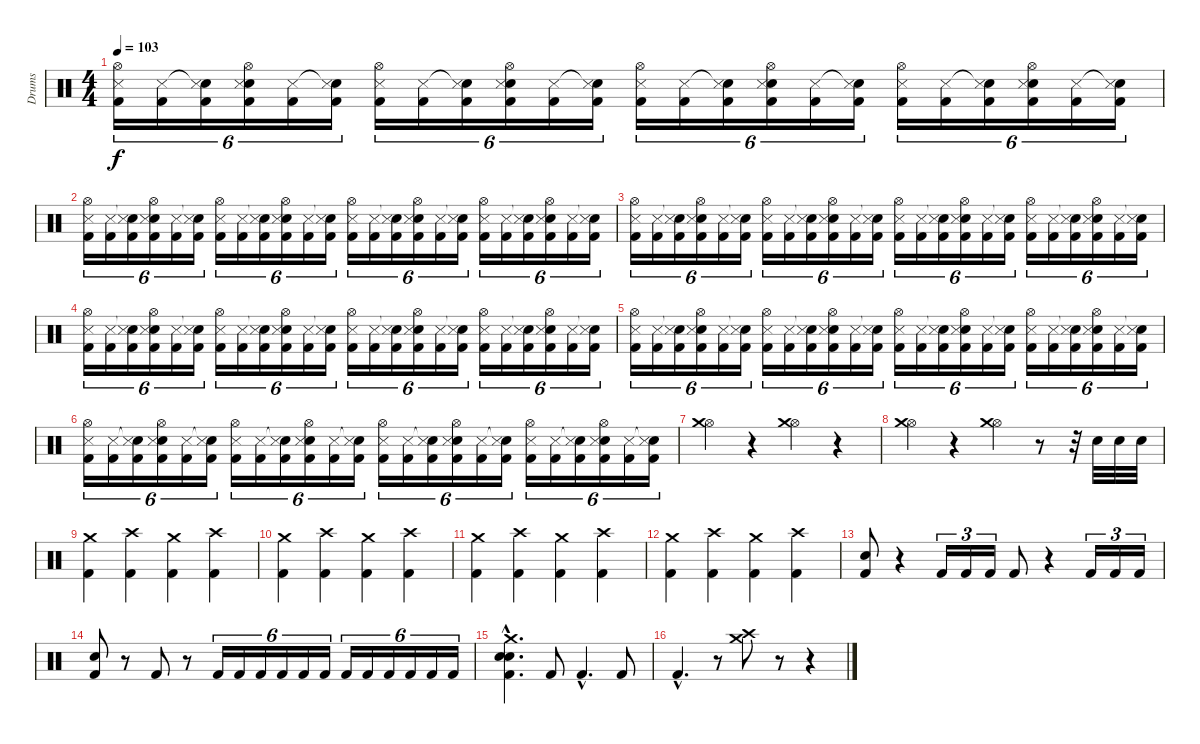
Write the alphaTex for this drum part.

\track ("Drums" "Drums") {instrument percussion}
\staff {score}
\articulation defaults
\ts (4 4)
\tempo 103
\clef neutral
\ks c
("Hi-Hat (open)" "Snare (side stick) 3" "Kick (hit) 2").16{tu (6 4) dy f} ("Snare (side stick) 3" "Kick (hit) 2").16{tu (6 4)} ("Snare (hit)"{t} "Snare (side stick) 3" "Kick (hit) 2").16{tu (6 4)} ("Hi-Hat (open)" "Electric Snare (hit)" "Snare (side stick) 3" "Kick (hit) 2").16{tu (6 4)} ("Snare (side stick) 3" "Kick (hit) 2").16{tu (6 4)} ("Snare (hit)"{t} "Snare (side stick) 3" "Kick (hit) 2").16{tu (6 4)} ("Hi-Hat (open)" "Snare (side stick) 3" "Kick (hit) 2").16{tu (6 4)} ("Snare (side stick) 3" "Kick (hit) 2").16{tu (6 4)} ("Snare (hit)"{t} "Snare (side stick) 3" "Kick (hit) 2").16{tu (6 4)} ("Hi-Hat (open)" "Electric Snare (hit)" "Snare (side stick) 3" "Kick (hit) 2").16{tu (6 4)} ("Snare (side stick) 3" "Kick (hit) 2").16{tu (6 4)} ("Snare (hit)"{t} "Snare (side stick) 3" "Kick (hit) 2").16{tu (6 4)} ("Hi-Hat (open)" "Snare (side stick) 3" "Kick (hit) 2").16{tu (6 4)} ("Snare (side stick) 3" "Kick (hit) 2").16{tu (6 4)} ("Snare (hit)"{t} "Snare (side stick) 3" "Kick (hit) 2").16{tu (6 4)} ("Hi-Hat (open)" "Electric Snare (hit)" "Snare (side stick) 3" "Kick (hit) 2").16{tu (6 4)} ("Snare (side stick) 3" "Kick (hit) 2").16{tu (6 4)} ("Snare (hit)"{t} "Snare (side stick) 3" "Kick (hit) 2").16{tu (6 4)} ("Hi-Hat (open)" "Snare (side stick) 3" "Kick (hit) 2").16{tu (6 4)} ("Snare (side stick) 3" "Kick (hit) 2").16{tu (6 4)} ("Snare (hit)"{t} "Snare (side stick) 3" "Kick (hit) 2").16{tu (6 4)} ("Hi-Hat (open)" "Electric Snare (hit)" "Snare (side stick) 3" "Kick (hit) 2").16{tu (6 4)} ("Snare (side stick) 3" "Kick (hit) 2").16{tu (6 4)} ("Snare (hit)"{t} "Snare (side stick) 3" "Kick (hit) 2").16{tu (6 4)} |
("Hi-Hat (open)" "Snare (side stick) 3" "Kick (hit) 2").16{tu (6 4)} ("Snare (side stick) 3" "Kick (hit) 2").16{tu (6 4)} ("Snare (hit)"{t} "Snare (side stick) 3" "Kick (hit) 2").16{tu (6 4)} ("Hi-Hat (open)" "Electric Snare (hit)" "Snare (side stick) 3" "Kick (hit) 2").16{tu (6 4)} ("Snare (side stick) 3" "Kick (hit) 2").16{tu (6 4)} ("Snare (hit)"{t} "Snare (side stick) 3" "Kick (hit) 2").16{tu (6 4)} ("Hi-Hat (open)" "Snare (side stick) 3" "Kick (hit) 2").16{tu (6 4)} ("Snare (side stick) 3" "Kick (hit) 2").16{tu (6 4)} ("Snare (hit)"{t} "Snare (side stick) 3" "Kick (hit) 2").16{tu (6 4)} ("Hi-Hat (open)" "Electric Snare (hit)" "Snare (side stick) 3" "Kick (hit) 2").16{tu (6 4)} ("Snare (side stick) 3" "Kick (hit) 2").16{tu (6 4)} ("Snare (hit)"{t} "Snare (side stick) 3" "Kick (hit) 2").16{tu (6 4)} ("Hi-Hat (open)" "Snare (side stick) 3" "Kick (hit) 2").16{tu (6 4)} ("Snare (side stick) 3" "Kick (hit) 2").16{tu (6 4)} ("Snare (hit)"{t} "Snare (side stick) 3" "Kick (hit) 2").16{tu (6 4)} ("Hi-Hat (open)" "Electric Snare (hit)" "Snare (side stick) 3" "Kick (hit) 2").16{tu (6 4)} ("Snare (side stick) 3" "Kick (hit) 2").16{tu (6 4)} ("Snare (hit)"{t} "Snare (side stick) 3" "Kick (hit) 2").16{tu (6 4)} ("Hi-Hat (open)" "Snare (side stick) 3" "Kick (hit) 2").16{tu (6 4)} ("Snare (side stick) 3" "Kick (hit) 2").16{tu (6 4)} ("Snare (hit)"{t} "Snare (side stick) 3" "Kick (hit) 2").16{tu (6 4)} ("Hi-Hat (open)" "Electric Snare (hit)" "Snare (side stick) 3" "Kick (hit) 2").16{tu (6 4)} ("Snare (side stick) 3" "Kick (hit) 2").16{tu (6 4)} ("Snare (hit)"{t} "Snare (side stick) 3" "Kick (hit) 2").16{tu (6 4)} |
("Hi-Hat (open)" "Snare (side stick) 3" "Kick (hit) 2").16{tu (6 4)} ("Snare (side stick) 3" "Kick (hit) 2").16{tu (6 4)} ("Snare (hit)"{t} "Snare (side stick) 3" "Kick (hit) 2").16{tu (6 4)} ("Hi-Hat (open)" "Electric Snare (hit)" "Snare (side stick) 3" "Kick (hit) 2").16{tu (6 4)} ("Snare (side stick) 3" "Kick (hit) 2").16{tu (6 4)} ("Snare (hit)"{t} "Snare (side stick) 3" "Kick (hit) 2").16{tu (6 4)} ("Hi-Hat (open)" "Snare (side stick) 3" "Kick (hit) 2").16{tu (6 4)} ("Snare (side stick) 3" "Kick (hit) 2").16{tu (6 4)} ("Snare (hit)"{t} "Snare (side stick) 3" "Kick (hit) 2").16{tu (6 4)} ("Hi-Hat (open)" "Electric Snare (hit)" "Snare (side stick) 3" "Kick (hit) 2").16{tu (6 4)} ("Snare (side stick) 3" "Kick (hit) 2").16{tu (6 4)} ("Snare (hit)"{t} "Snare (side stick) 3" "Kick (hit) 2").16{tu (6 4)} ("Hi-Hat (open)" "Snare (side stick) 3" "Kick (hit) 2").16{tu (6 4)} ("Snare (side stick) 3" "Kick (hit) 2").16{tu (6 4)} ("Snare (hit)"{t} "Snare (side stick) 3" "Kick (hit) 2").16{tu (6 4)} ("Hi-Hat (open)" "Electric Snare (hit)" "Snare (side stick) 3" "Kick (hit) 2").16{tu (6 4)} ("Snare (side stick) 3" "Kick (hit) 2").16{tu (6 4)} ("Snare (hit)"{t} "Snare (side stick) 3" "Kick (hit) 2").16{tu (6 4)} ("Hi-Hat (open)" "Snare (side stick) 3" "Kick (hit) 2").16{tu (6 4)} ("Snare (side stick) 3" "Kick (hit) 2").16{tu (6 4)} ("Snare (hit)"{t} "Snare (side stick) 3" "Kick (hit) 2").16{tu (6 4)} ("Hi-Hat (open)" "Electric Snare (hit)" "Snare (side stick) 3" "Kick (hit) 2").16{tu (6 4)} ("Snare (side stick) 3" "Kick (hit) 2").16{tu (6 4)} ("Snare (hit)"{t} "Snare (side stick) 3" "Kick (hit) 2").16{tu (6 4)} |
("Hi-Hat (open)" "Snare (side stick) 3" "Kick (hit) 2").16{tu (6 4)} ("Snare (side stick) 3" "Kick (hit) 2").16{tu (6 4)} ("Snare (hit)"{t} "Snare (side stick) 3" "Kick (hit) 2").16{tu (6 4)} ("Hi-Hat (open)" "Electric Snare (hit)" "Snare (side stick) 3" "Kick (hit) 2").16{tu (6 4)} ("Snare (side stick) 3" "Kick (hit) 2").16{tu (6 4)} ("Snare (hit)"{t} "Snare (side stick) 3" "Kick (hit) 2").16{tu (6 4)} ("Hi-Hat (open)" "Snare (side stick) 3" "Kick (hit) 2").16{tu (6 4)} ("Snare (side stick) 3" "Kick (hit) 2").16{tu (6 4)} ("Snare (hit)"{t} "Snare (side stick) 3" "Kick (hit) 2").16{tu (6 4)} ("Hi-Hat (open)" "Electric Snare (hit)" "Snare (side stick) 3" "Kick (hit) 2").16{tu (6 4)} ("Snare (side stick) 3" "Kick (hit) 2").16{tu (6 4)} ("Snare (hit)"{t} "Snare (side stick) 3" "Kick (hit) 2").16{tu (6 4)} ("Hi-Hat (open)" "Snare (side stick) 3" "Kick (hit) 2").16{tu (6 4)} ("Snare (side stick) 3" "Kick (hit) 2").16{tu (6 4)} ("Snare (hit)"{t} "Snare (side stick) 3" "Kick (hit) 2").16{tu (6 4)} ("Hi-Hat (open)" "Electric Snare (hit)" "Snare (side stick) 3" "Kick (hit) 2").16{tu (6 4)} ("Snare (side stick) 3" "Kick (hit) 2").16{tu (6 4)} ("Snare (hit)"{t} "Snare (side stick) 3" "Kick (hit) 2").16{tu (6 4)} ("Hi-Hat (open)" "Snare (side stick) 3" "Kick (hit) 2").16{tu (6 4)} ("Snare (side stick) 3" "Kick (hit) 2").16{tu (6 4)} ("Snare (hit)"{t} "Snare (side stick) 3" "Kick (hit) 2").16{tu (6 4)} ("Hi-Hat (open)" "Electric Snare (hit)" "Snare (side stick) 3" "Kick (hit) 2").16{tu (6 4)} ("Snare (side stick) 3" "Kick (hit) 2").16{tu (6 4)} ("Snare (hit)"{t} "Snare (side stick) 3" "Kick (hit) 2").16{tu (6 4)} |
("Hi-Hat (open)" "Snare (side stick) 3" "Kick (hit) 2").16{tu (6 4)} ("Snare (side stick) 3" "Kick (hit) 2").16{tu (6 4)} ("Snare (hit)"{t} "Snare (side stick) 3" "Kick (hit) 2").16{tu (6 4)} ("Hi-Hat (open)" "Electric Snare (hit)" "Snare (side stick) 3" "Kick (hit) 2").16{tu (6 4)} ("Snare (side stick) 3" "Kick (hit) 2").16{tu (6 4)} ("Snare (hit)"{t} "Snare (side stick) 3" "Kick (hit) 2").16{tu (6 4)} ("Hi-Hat (open)" "Snare (side stick) 3" "Kick (hit) 2").16{tu (6 4)} ("Snare (side stick) 3" "Kick (hit) 2").16{tu (6 4)} ("Snare (hit)"{t} "Snare (side stick) 3" "Kick (hit) 2").16{tu (6 4)} ("Hi-Hat (open)" "Electric Snare (hit)" "Snare (side stick) 3" "Kick (hit) 2").16{tu (6 4)} ("Snare (side stick) 3" "Kick (hit) 2").16{tu (6 4)} ("Snare (hit)"{t} "Snare (side stick) 3" "Kick (hit) 2").16{tu (6 4)} ("Hi-Hat (open)" "Snare (side stick) 3" "Kick (hit) 2").16{tu (6 4)} ("Snare (side stick) 3" "Kick (hit) 2").16{tu (6 4)} ("Snare (hit)"{t} "Snare (side stick) 3" "Kick (hit) 2").16{tu (6 4)} ("Hi-Hat (open)" "Electric Snare (hit)" "Snare (side stick) 3" "Kick (hit) 2").16{tu (6 4)} ("Snare (side stick) 3" "Kick (hit) 2").16{tu (6 4)} ("Snare (hit)"{t} "Snare (side stick) 3" "Kick (hit) 2").16{tu (6 4)} ("Hi-Hat (open)" "Snare (side stick) 3" "Kick (hit) 2").16{tu (6 4)} ("Snare (side stick) 3" "Kick (hit) 2").16{tu (6 4)} ("Snare (hit)"{t} "Snare (side stick) 3" "Kick (hit) 2").16{tu (6 4)} ("Hi-Hat (open)" "Electric Snare (hit)" "Snare (side stick) 3" "Kick (hit) 2").16{tu (6 4)} ("Snare (side stick) 3" "Kick (hit) 2").16{tu (6 4)} ("Snare (hit)"{t} "Snare (side stick) 3" "Kick (hit) 2").16{tu (6 4)} |
("Hi-Hat (open)" "Snare (side stick) 3" "Kick (hit) 2").16{tu (6 4)} ("Snare (side stick) 3" "Kick (hit) 2").16{tu (6 4)} ("Snare (hit)"{t} "Snare (side stick) 3" "Kick (hit) 2").16{tu (6 4)} ("Hi-Hat (open)" "Electric Snare (hit)" "Snare (side stick) 3" "Kick (hit) 2").16{tu (6 4)} ("Snare (side stick) 3" "Kick (hit) 2").16{tu (6 4)} ("Snare (hit)"{t} "Snare (side stick) 3" "Kick (hit) 2").16{tu (6 4)} ("Hi-Hat (open)" "Snare (side stick) 3" "Kick (hit) 2").16{tu (6 4)} ("Snare (side stick) 3" "Kick (hit) 2").16{tu (6 4)} ("Snare (hit)"{t} "Snare (side stick) 3" "Kick (hit) 2").16{tu (6 4)} ("Hi-Hat (open)" "Electric Snare (hit)" "Snare (side stick) 3" "Kick (hit) 2").16{tu (6 4)} ("Snare (side stick) 3" "Kick (hit) 2").16{tu (6 4)} ("Snare (hit)"{t} "Snare (side stick) 3" "Kick (hit) 2").16{tu (6 4)} ("Hi-Hat (open)" "Snare (side stick) 3" "Kick (hit) 2").16{tu (6 4)} ("Snare (side stick) 3" "Kick (hit) 2").16{tu (6 4)} ("Snare (hit)"{t} "Snare (side stick) 3" "Kick (hit) 2").16{tu (6 4)} ("Hi-Hat (open)" "Electric Snare (hit)" "Snare (side stick) 3" "Kick (hit) 2").16{tu (6 4)} ("Snare (side stick) 3" "Kick (hit) 2").16{tu (6 4)} ("Snare (hit)"{t} "Snare (side stick) 3" "Kick (hit) 2").16{tu (6 4)} ("Hi-Hat (open)" "Snare (side stick) 3" "Kick (hit) 2").16{tu (6 4)} ("Snare (side stick) 3" "Kick (hit) 2").16{tu (6 4)} ("Snare (hit)"{t} "Snare (side stick) 3" "Kick (hit) 2").16{tu (6 4)} ("Hi-Hat (open)" "Electric Snare (hit)" "Snare (side stick) 3" "Kick (hit) 2").16{tu (6 4)} ("Snare (side stick) 3" "Kick (hit) 2").16{tu (6 4)} ("Snare (hit)"{t} "Snare (side stick) 3" "Kick (hit) 2").16{tu (6 4)} |
("Hi-Hat (open)" "Crash medium (hit)").4 r.4 ("Hi-Hat (open)" "Crash medium (hit)").4 r.4 |
("Hi-Hat (open)" "Crash medium (hit)").4 r.4 ("Hi-Hat (open)" "Crash medium (hit)").4 r.8 r.32 "Electric Snare (hit)".32 "Electric Snare (hit)".32 "Electric Snare (hit)".32 |
("Crash medium (hit)" "Kick (hit) 2").4 ("Crash high (hit)" "Kick (hit) 2").4 ("Crash medium (hit)" "Kick (hit) 2").4 ("Crash high (hit)" "Kick (hit) 2").4 |
("Crash medium (hit)" "Kick (hit) 2").4 ("Crash high (hit)" "Kick (hit) 2").4 ("Crash medium (hit)" "Kick (hit) 2").4 ("Crash high (hit)" "Kick (hit) 2").4 |
("Crash medium (hit)" "Kick (hit) 2").4 ("Crash high (hit)" "Kick (hit) 2").4 ("Crash medium (hit)" "Kick (hit) 2").4 ("Crash high (hit)" "Kick (hit) 2").4 |
("Crash medium (hit)" "Kick (hit) 2").4 ("Crash high (hit)" "Kick (hit) 2").4 ("Crash medium (hit)" "Kick (hit) 2").4 ("Crash high (hit)" "Kick (hit) 2").4 |
("Electric Snare (hit)" "Kick (hit) 2").8 r.4 "Kick (hit) 2".16{tu (3 2)} "Kick (hit) 2".16{tu (3 2)} "Kick (hit) 2".16{tu (3 2)} "Kick (hit) 2".8 r.4 "Kick (hit) 2".16{tu (3 2)} "Kick (hit) 2".16{tu (3 2)} "Kick (hit) 2".16{tu (3 2)} |
("Electric Snare (hit)" "Kick (hit) 2").8 r.8 "Kick (hit) 2".8 r.8 "Kick (hit) 2".16{tu (6 4)} "Kick (hit) 2".16{tu (6 4)} "Kick (hit) 2".16{tu (6 4)} "Kick (hit) 2".16{tu (6 4)} "Kick (hit) 2".16{tu (6 4)} "Kick (hit) 2".16{tu (6 4)} "Kick (hit) 2".16{tu (6 4)} "Kick (hit) 2".16{tu (6 4)} "Kick (hit) 2".16{tu (6 4)} "Kick (hit) 2".16{tu (6 4)} "Kick (hit) 2".16{tu (6 4)} "Kick (hit) 2".16{tu (6 4)} |
("Snare (hit) 2"{hac} "Electric Snare (hit)"{hac} "Crash medium (hit)"{hac} "Kick (hit) 2"{hac}).4{d} "Kick (hit) 2".8 "Kick (hit) 2"{hac}.4{d} "Kick (hit) 2".8 |
"Kick (hit) 2"{hac}.4{d} r.8 ("Crash medium (hit)" "Crash high (hit)").8 r.8 r.4
